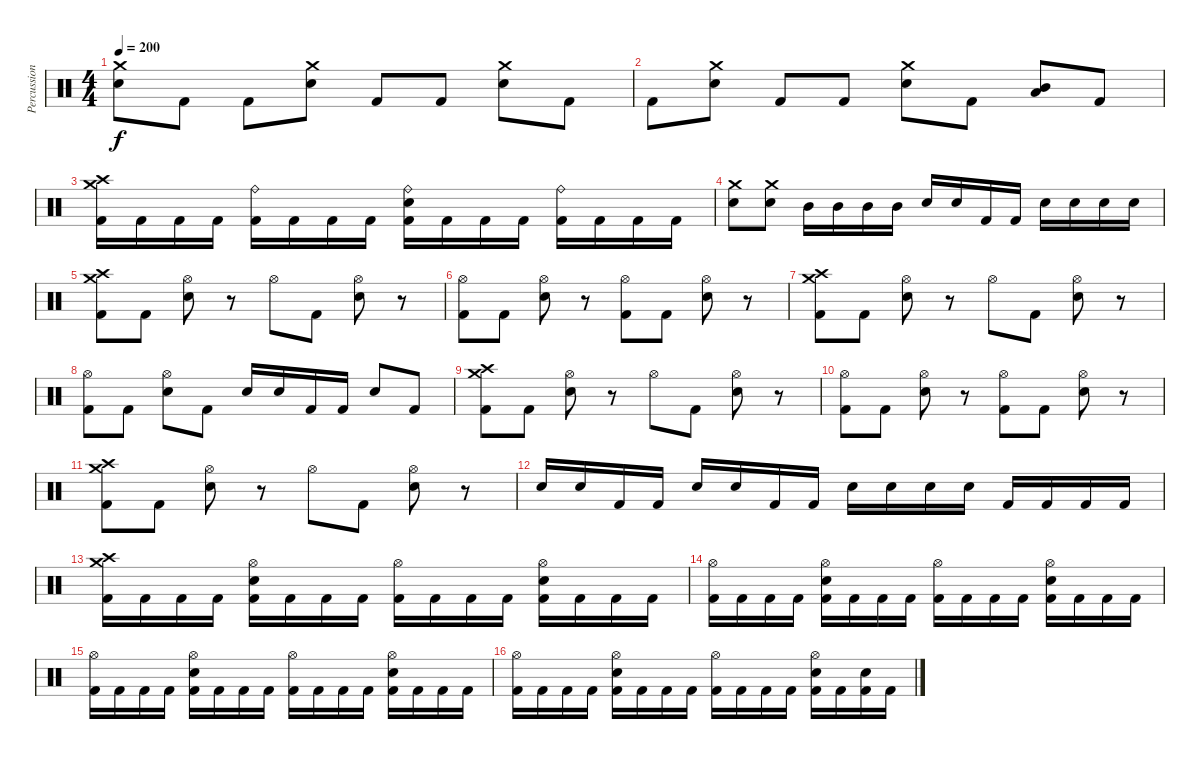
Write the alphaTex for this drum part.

\track ("Percussion" "Percussion") {instrument percussion}
\staff {score}
\articulation defaults
\ts (4 4)
\tempo 200
\clef neutral
\ks c
("Crash medium (hit)" "Snare (hit) 2").8{dy f} "Kick (hit) 2".8 "Kick (hit) 2".8 ("Crash medium (hit)" "Snare (hit) 2").8 "Kick (hit) 2".8 "Kick (hit) 2".8 ("Crash medium (hit)" "Snare (hit) 2").8 "Kick (hit) 2".8 |
"Kick (hit) 2".8 ("Crash medium (hit)" "Snare (hit) 2").8 "Kick (hit) 2".8 "Kick (hit) 2".8 ("Crash medium (hit)" "Snare (hit) 2").8 "Kick (hit) 2".8 ("Low Tom (hit)" "Mid Tom (hit)").8 "Kick (hit) 2".8 |
("Crash high (hit)" "Crash medium (hit)" "Kick (hit) 2").16 "Kick (hit) 2".16 "Kick (hit) 2".16 "Kick (hit) 2".16 ("Ride (bell)" "Kick (hit) 2").16 "Kick (hit) 2".16 "Kick (hit) 2".16 "Kick (hit) 2".16 ("Ride (bell)" "Snare (hit) 2" "Kick (hit) 2").16 "Kick (hit) 2".16 "Kick (hit) 2".16 "Kick (hit) 2".16 ("Ride (bell)" "Kick (hit) 2").16 "Kick (hit) 2".16 "Kick (hit) 2".16 "Kick (hit) 2".16 |
("Crash medium (hit)" "Snare (hit) 2").8 ("Crash medium (hit)" "Snare (hit) 2").8 "Mid Tom (hit)".16 "Mid Tom (hit)".16 "Mid Tom (hit)".16 "Mid Tom (hit)".16 "Snare (hit) 2".16 "Snare (hit) 2".16 "Kick (hit) 2".16 "Kick (hit) 2".16 "Snare (hit) 2".16 "Snare (hit) 2".16 "Snare (hit) 2".16 "Snare (hit) 2".16 |
("Crash high (hit)" "Crash medium (hit)" "Kick (hit) 2").8 "Kick (hit) 2".8 ("Hi-Hat (open)" "Snare (hit) 2").8 r.8 "Hi-Hat (open)".8 "Kick (hit) 2".8 ("Hi-Hat (open)" "Snare (hit) 2").8 r.8 |
("Hi-Hat (open)" "Kick (hit) 2").8 "Kick (hit) 2".8 ("Hi-Hat (open)" "Snare (hit) 2").8 r.8 ("Hi-Hat (open)" "Kick (hit) 2").8 "Kick (hit) 2".8 ("Hi-Hat (open)" "Snare (hit) 2").8 r.8 |
("Crash high (hit)" "Crash medium (hit)" "Kick (hit) 2").8 "Kick (hit) 2".8 ("Hi-Hat (open)" "Snare (hit) 2").8 r.8 "Hi-Hat (open)".8 "Kick (hit) 2".8 ("Hi-Hat (open)" "Snare (hit) 2").8 r.8 |
("Hi-Hat (open)" "Kick (hit) 2").8 "Kick (hit) 2".8 ("Hi-Hat (open)" "Snare (hit) 2").8 "Kick (hit) 2".8 "Snare (hit) 2".16 "Snare (hit) 2".16 "Kick (hit) 2".16 "Kick (hit) 2".16 "Snare (hit) 2".8 "Kick (hit) 2".8 |
("Crash high (hit)" "Crash medium (hit)" "Kick (hit) 2").8 "Kick (hit) 2".8 ("Hi-Hat (open)" "Snare (hit) 2").8 r.8 "Hi-Hat (open)".8 "Kick (hit) 2".8 ("Hi-Hat (open)" "Snare (hit) 2").8 r.8 |
("Hi-Hat (open)" "Kick (hit) 2").8 "Kick (hit) 2".8 ("Hi-Hat (open)" "Snare (hit) 2").8 r.8 ("Hi-Hat (open)" "Kick (hit) 2").8 "Kick (hit) 2".8 ("Hi-Hat (open)" "Snare (hit) 2").8 r.8 |
("Crash high (hit)" "Crash medium (hit)" "Kick (hit) 2").8 "Kick (hit) 2".8 ("Hi-Hat (open)" "Snare (hit) 2").8 r.8 "Hi-Hat (open)".8 "Kick (hit) 2".8 ("Hi-Hat (open)" "Snare (hit) 2").8 r.8 |
"Snare (hit) 2".16 "Snare (hit) 2".16 "Kick (hit) 2".16 "Kick (hit) 2".16 "Snare (hit) 2".16 "Snare (hit) 2".16 "Kick (hit) 2".16 "Kick (hit) 2".16 "Snare (hit) 2".16 "Snare (hit) 2".16 "Snare (hit) 2".16 "Snare (hit) 2".16 "Kick (hit) 2".16 "Kick (hit) 2".16 "Kick (hit) 2".16 "Kick (hit) 2".16 |
("Crash high (hit)" "Crash medium (hit)" "Kick (hit) 2").16 "Kick (hit) 2".16 "Kick (hit) 2".16 "Kick (hit) 2".16 ("Hi-Hat (open)" "Snare (hit) 2" "Kick (hit) 2").16 "Kick (hit) 2".16 "Kick (hit) 2".16 "Kick (hit) 2".16 ("Hi-Hat (open)" "Kick (hit) 2").16 "Kick (hit) 2".16 "Kick (hit) 2".16 "Kick (hit) 2".16 ("Hi-Hat (open)" "Snare (hit) 2" "Kick (hit) 2").16 "Kick (hit) 2".16 "Kick (hit) 2".16 "Kick (hit) 2".16 |
("Hi-Hat (open)" "Kick (hit) 2").16 "Kick (hit) 2".16 "Kick (hit) 2".16 "Kick (hit) 2".16 ("Hi-Hat (open)" "Snare (hit) 2" "Kick (hit) 2").16 "Kick (hit) 2".16 "Kick (hit) 2".16 "Kick (hit) 2".16 ("Hi-Hat (open)" "Kick (hit) 2").16 "Kick (hit) 2".16 "Kick (hit) 2".16 "Kick (hit) 2".16 ("Hi-Hat (open)" "Snare (hit) 2" "Kick (hit) 2").16 "Kick (hit) 2".16 "Kick (hit) 2".16 "Kick (hit) 2".16 |
("Hi-Hat (open)" "Kick (hit) 2").16 "Kick (hit) 2".16 "Kick (hit) 2".16 "Kick (hit) 2".16 ("Hi-Hat (open)" "Snare (hit) 2" "Kick (hit) 2").16 "Kick (hit) 2".16 "Kick (hit) 2".16 "Kick (hit) 2".16 ("Hi-Hat (open)" "Kick (hit) 2").16 "Kick (hit) 2".16 "Kick (hit) 2".16 "Kick (hit) 2".16 ("Hi-Hat (open)" "Snare (hit) 2" "Kick (hit) 2").16 "Kick (hit) 2".16 "Kick (hit) 2".16 "Kick (hit) 2".16 |
("Hi-Hat (open)" "Kick (hit) 2").16 "Kick (hit) 2".16 "Kick (hit) 2".16 "Kick (hit) 2".16 ("Hi-Hat (open)" "Snare (hit) 2" "Kick (hit) 2").16 "Kick (hit) 2".16 "Kick (hit) 2".16 "Kick (hit) 2".16 ("Hi-Hat (open)" "Kick (hit) 2").16 "Kick (hit) 2".16 "Kick (hit) 2".16 "Kick (hit) 2".16 ("Hi-Hat (open)" "Snare (hit) 2" "Kick (hit) 2").16 "Kick (hit) 2".16 ("Snare (hit) 2" "Kick (hit) 2").16 "Kick (hit) 2".16
